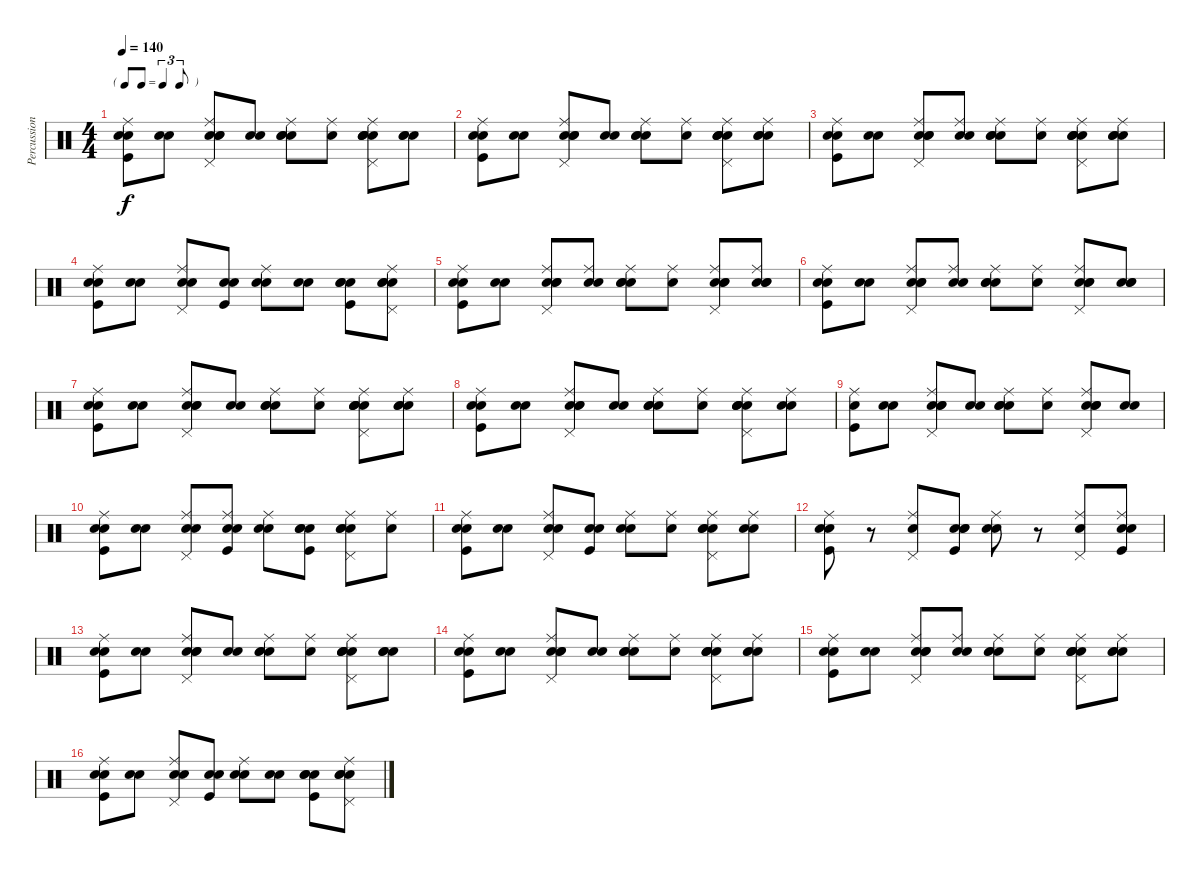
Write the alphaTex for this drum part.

\track ("Percussions" "Percussion") {instrument percussion}
\staff {score}
\articulation defaults
\ts (4 4)
\tf triplet8th
\tempo 140
\clef neutral
\ks c
("Snare (hit)" "Kick (hit)" "Electric Snare (hit)" "Ride (middle)").8{dy f} ("Snare (hit)" "Electric Snare (hit)").8 ("Snare (hit)" "Snare (hit) 2" "Electric Snare (hit)" "Ride (middle)" "Pedal Hi-Hat (hit)").8 ("Snare (hit)" "Snare (hit) 2").8 ("Snare (hit)" "Snare (hit) 2" "Electric Snare (hit)" "Ride (middle)").8 ("Snare (hit)" "Ride (middle)").8 ("Snare (hit)" "Snare (hit) 2" "Electric Snare (hit)" "Ride (middle)" "Pedal Hi-Hat (hit)" "Hand Clap (hit)").8 ("Snare (hit)" "Snare (hit) 2" "Hand Clap (hit)").8 |
("Snare (hit)" "Kick (hit)" "Electric Snare (hit)" "Ride (middle)").8 ("Snare (hit)" "Electric Snare (hit)").8 ("Snare (hit)" "Snare (hit) 2" "Electric Snare (hit)" "Ride (middle)" "Pedal Hi-Hat (hit)").8 ("Snare (hit)" "Snare (hit) 2").8 ("Snare (hit)" "Snare (hit) 2" "Electric Snare (hit)" "Ride (middle)").8 ("Snare (hit)" "Ride (middle)").8 ("Snare (hit)" "Snare (hit) 2" "Electric Snare (hit)" "Ride (middle)" "Pedal Hi-Hat (hit)" "Hand Clap (hit)").8 ("Snare (hit)" "Snare (hit) 2" "Ride (middle)" "Hand Clap (hit)").8 |
("Snare (hit)" "Kick (hit)" "Electric Snare (hit)" "Ride (middle)").8 ("Snare (hit)" "Electric Snare (hit)").8 ("Snare (hit)" "Snare (hit) 2" "Electric Snare (hit)" "Ride (middle)" "Pedal Hi-Hat (hit)").8 ("Snare (hit)" "Snare (hit) 2" "Ride (middle)").8 ("Snare (hit)" "Snare (hit) 2" "Electric Snare (hit)" "Ride (middle)").8 ("Snare (hit)" "Ride (middle)").8 ("Snare (hit)" "Snare (hit) 2" "Electric Snare (hit)" "Ride (middle)" "Pedal Hi-Hat (hit)" "Hand Clap (hit)").8 ("Snare (hit)" "Snare (hit) 2" "Ride (middle)" "Hand Clap (hit)").8 |
("Snare (hit)" "Kick (hit)" "Electric Snare (hit)" "Ride (middle)").8 ("Snare (hit)" "Electric Snare (hit)").8 ("Snare (hit)" "Snare (hit) 2" "Ride (middle)" "Pedal Hi-Hat (hit)").8 ("Snare (hit)" "Kick (hit)" "Hand Clap (hit)").8 ("Snare (hit)" "Electric Snare (hit)" "Ride (middle)").8 ("Snare (hit)" "Snare (hit) 2").8 ("Snare (hit)" "Kick (hit)" "Electric Snare (hit)" "Hand Clap (hit)").8 ("Snare (hit)" "Electric Snare (hit)" "Ride (middle)" "Pedal Hi-Hat (hit)" "Hand Clap (hit)").8 |
("Snare (hit)" "Kick (hit)" "Electric Snare (hit)" "Ride (middle)").8 ("Snare (hit)" "Electric Snare (hit)").8 ("Snare (hit)" "Snare (hit) 2" "Electric Snare (hit)" "Ride (middle)" "Pedal Hi-Hat (hit)").8 ("Snare (hit)" "Snare (hit) 2" "Ride (middle)").8 ("Snare (hit)" "Snare (hit) 2" "Electric Snare (hit)" "Ride (middle)").8 ("Snare (hit)" "Ride (middle)").8 ("Snare (hit)" "Snare (hit) 2" "Electric Snare (hit)" "Ride (middle)" "Pedal Hi-Hat (hit)").8 ("Snare (hit)" "Snare (hit) 2" "Ride (middle)" "Hand Clap (hit)").8 |
("Snare (hit)" "Kick (hit)" "Electric Snare (hit)" "Ride (middle)").8 ("Snare (hit)" "Electric Snare (hit)").8 ("Snare (hit)" "Snare (hit) 2" "Electric Snare (hit)" "Ride (middle)" "Pedal Hi-Hat (hit)").8 ("Snare (hit)" "Snare (hit) 2" "Ride (middle)").8 ("Snare (hit)" "Snare (hit) 2" "Electric Snare (hit)" "Ride (middle)").8 ("Snare (hit)" "Ride (middle)").8 ("Snare (hit)" "Snare (hit) 2" "Electric Snare (hit)" "Ride (middle)" "Pedal Hi-Hat (hit)").8 ("Snare (hit)" "Snare (hit) 2" "Hand Clap (hit)").8 |
("Snare (hit)" "Kick (hit)" "Electric Snare (hit)" "Ride (middle)").8 ("Snare (hit)" "Electric Snare (hit)").8 ("Snare (hit)" "Snare (hit) 2" "Electric Snare (hit)" "Ride (middle)" "Pedal Hi-Hat (hit)").8 ("Snare (hit)" "Snare (hit) 2").8 ("Snare (hit)" "Snare (hit) 2" "Electric Snare (hit)" "Ride (middle)").8 ("Snare (hit)" "Ride (middle)").8 ("Snare (hit)" "Snare (hit) 2" "Electric Snare (hit)" "Ride (middle)" "Pedal Hi-Hat (hit)" "Hand Clap (hit)").8 ("Snare (hit)" "Snare (hit) 2" "Ride (middle)" "Hand Clap (hit)").8 |
("Snare (hit)" "Kick (hit)" "Electric Snare (hit)" "Ride (middle)").8 ("Snare (hit)" "Electric Snare (hit)").8 ("Snare (hit)" "Snare (hit) 2" "Electric Snare (hit)" "Ride (middle)" "Pedal Hi-Hat (hit)").8 ("Snare (hit)" "Snare (hit) 2").8 ("Snare (hit)" "Snare (hit) 2" "Electric Snare (hit)" "Ride (middle)").8 ("Snare (hit)" "Ride (middle)").8 ("Snare (hit)" "Snare (hit) 2" "Electric Snare (hit)" "Ride (middle)" "Pedal Hi-Hat (hit)" "Hand Clap (hit)").8 ("Snare (hit)" "Snare (hit) 2" "Ride (middle)").8 |
("Kick (hit)" "Electric Snare (hit)" "Ride (middle)").8 ("Snare (hit)" "Electric Snare (hit)").8 ("Snare (hit)" "Snare (hit) 2" "Electric Snare (hit)" "Ride (middle)" "Pedal Hi-Hat (hit)").8 ("Snare (hit)" "Snare (hit) 2").8 ("Snare (hit)" "Snare (hit) 2" "Electric Snare (hit)" "Ride (middle)").8 ("Snare (hit)" "Ride (middle)").8 ("Snare (hit)" "Snare (hit) 2" "Electric Snare (hit)" "Ride (middle)" "Pedal Hi-Hat (hit)").8 ("Snare (hit)" "Snare (hit) 2").8 |
("Snare (hit)" "Kick (hit)" "Electric Snare (hit)" "Ride (middle)").8 ("Snare (hit)" "Electric Snare (hit)").8 ("Snare (hit)" "Snare (hit) 2" "Ride (middle)" "Pedal Hi-Hat (hit)").8 ("Snare (hit)" "Kick (hit)" "Snare (hit) 2" "Ride (middle)").8 ("Snare (hit)" "Electric Snare (hit)" "Ride (middle)").8 ("Snare (hit)" "Kick (hit)" "Electric Snare (hit)" "Hand Clap (hit)").8 ("Snare (hit)" "Electric Snare (hit)" "Ride (middle)" "Pedal Hi-Hat (hit)" "Hand Clap (hit)").8 ("Snare (hit)" "Ride (middle)").8 |
("Snare (hit)" "Kick (hit)" "Electric Snare (hit)" "Ride (middle)").8 ("Snare (hit)" "Electric Snare (hit)").8 ("Snare (hit)" "Snare (hit) 2" "Ride (middle)" "Pedal Hi-Hat (hit)").8 ("Snare (hit)" "Kick (hit)" "Hand Clap (hit)").8 ("Snare (hit)" "Electric Snare (hit)" "Ride (middle)").8 ("Snare (hit)" "Ride (middle)").8 ("Snare (hit)" "Snare (hit) 2" "Ride (middle)" "Pedal Hi-Hat (hit)" "Hand Clap (hit)").8 ("Snare (hit)" "Snare (hit) 2" "Ride (middle)").8 |
("Snare (hit)" "Kick (hit)" "Electric Snare (hit)" "Ride (middle)").8 r.8 ("Snare (hit) 2" "Ride (middle)" "Pedal Hi-Hat (hit)").8 ("Snare (hit)" "Kick (hit)" "Snare (hit) 2" "Hand Clap (hit)").8 ("Snare (hit)" "Electric Snare (hit)" "Ride (middle)").8 r.8 ("Snare (hit) 2" "Ride (middle)" "Pedal Hi-Hat (hit)").8 ("Snare (hit)" "Kick (hit)" "Ride (middle)" "Hand Clap (hit)").8 |
("Snare (hit)" "Kick (hit)" "Electric Snare (hit)" "Ride (middle)").8 ("Snare (hit)" "Electric Snare (hit)").8 ("Snare (hit)" "Snare (hit) 2" "Electric Snare (hit)" "Ride (middle)" "Pedal Hi-Hat (hit)").8 ("Snare (hit)" "Snare (hit) 2").8 ("Snare (hit)" "Snare (hit) 2" "Electric Snare (hit)" "Ride (middle)").8 ("Snare (hit)" "Ride (middle)").8 ("Snare (hit)" "Snare (hit) 2" "Electric Snare (hit)" "Ride (middle)" "Pedal Hi-Hat (hit)" "Hand Clap (hit)").8 ("Snare (hit)" "Snare (hit) 2" "Hand Clap (hit)").8 |
("Snare (hit)" "Kick (hit)" "Electric Snare (hit)" "Ride (middle)").8 ("Snare (hit)" "Electric Snare (hit)").8 ("Snare (hit)" "Snare (hit) 2" "Electric Snare (hit)" "Ride (middle)" "Pedal Hi-Hat (hit)").8 ("Snare (hit)" "Snare (hit) 2").8 ("Snare (hit)" "Snare (hit) 2" "Electric Snare (hit)" "Ride (middle)").8 ("Snare (hit)" "Ride (middle)").8 ("Snare (hit)" "Snare (hit) 2" "Electric Snare (hit)" "Ride (middle)" "Pedal Hi-Hat (hit)" "Hand Clap (hit)").8 ("Snare (hit)" "Snare (hit) 2" "Ride (middle)" "Hand Clap (hit)").8 |
("Snare (hit)" "Kick (hit)" "Electric Snare (hit)" "Ride (middle)").8 ("Snare (hit)" "Electric Snare (hit)").8 ("Snare (hit)" "Snare (hit) 2" "Electric Snare (hit)" "Ride (middle)" "Pedal Hi-Hat (hit)").8 ("Snare (hit)" "Snare (hit) 2" "Ride (middle)").8 ("Snare (hit)" "Snare (hit) 2" "Electric Snare (hit)" "Ride (middle)").8 ("Snare (hit)" "Ride (middle)").8 ("Snare (hit)" "Snare (hit) 2" "Electric Snare (hit)" "Ride (middle)" "Pedal Hi-Hat (hit)" "Hand Clap (hit)").8 ("Snare (hit)" "Snare (hit) 2" "Ride (middle)" "Hand Clap (hit)").8 |
("Snare (hit)" "Kick (hit)" "Electric Snare (hit)" "Ride (middle)").8 ("Snare (hit)" "Electric Snare (hit)").8 ("Snare (hit)" "Snare (hit) 2" "Ride (middle)" "Pedal Hi-Hat (hit)").8 ("Snare (hit)" "Kick (hit)" "Hand Clap (hit)").8 ("Snare (hit)" "Electric Snare (hit)" "Ride (middle)").8 ("Snare (hit)" "Snare (hit) 2").8 ("Snare (hit)" "Kick (hit)" "Electric Snare (hit)" "Hand Clap (hit)").8 ("Snare (hit)" "Electric Snare (hit)" "Ride (middle)" "Pedal Hi-Hat (hit)" "Hand Clap (hit)").8
